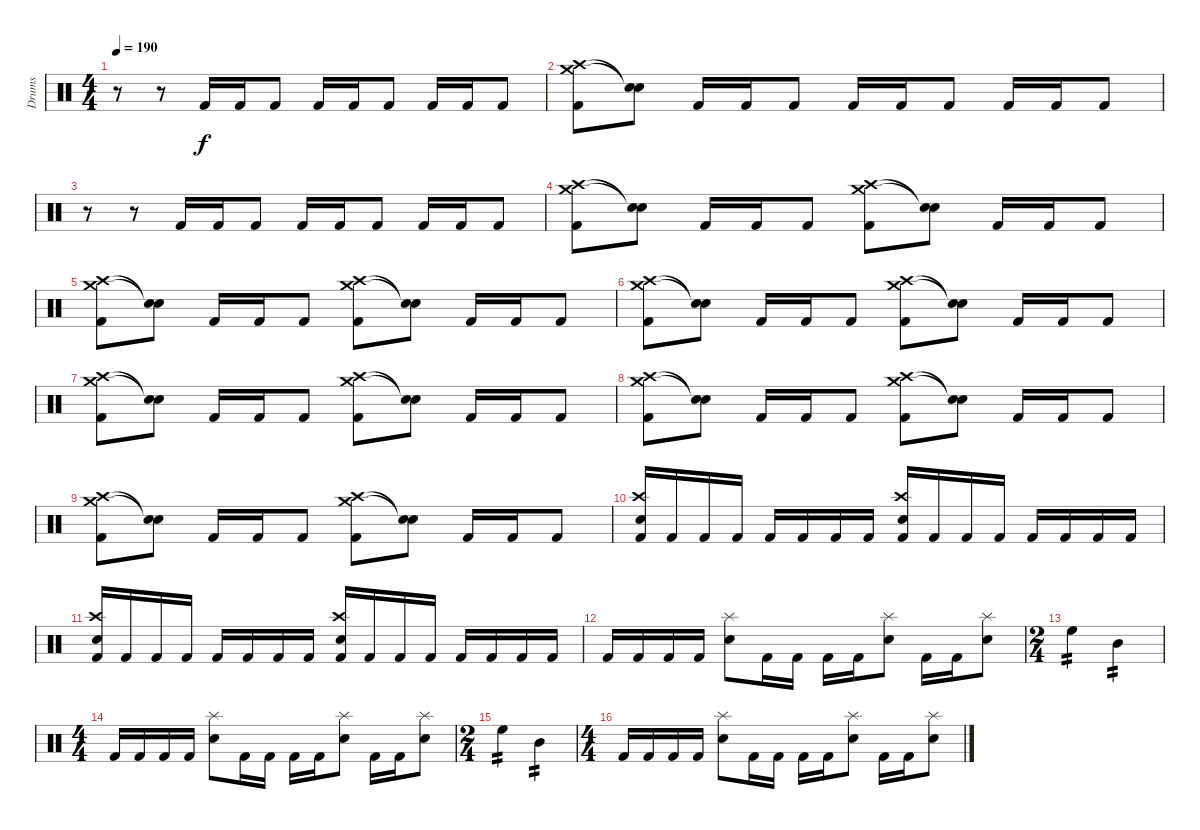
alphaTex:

\track ("Drums" "Drums") {instrument percussion}
\staff {score}
\articulation defaults
\ts (4 4)
\tempo 190
\clef neutral
\ks c
r.8{dy f} r.8 "Kick (hit) 2".16 "Kick (hit) 2".16 "Kick (hit) 2".8 "Kick (hit) 2".16 "Kick (hit) 2".16 "Kick (hit) 2".8 "Kick (hit) 2".16 "Kick (hit) 2".16 "Kick (hit) 2".8 |
("Crash medium (hit)" "Crash high (hit)" "Kick (hit) 2").8 ("Snare (hit)"{t} "Snare (hit)"{t}).8 "Kick (hit) 2".16 "Kick (hit) 2".16 "Kick (hit) 2".8 "Kick (hit) 2".16 "Kick (hit) 2".16 "Kick (hit) 2".8 "Kick (hit) 2".16 "Kick (hit) 2".16 "Kick (hit) 2".8 |
r.8 r.8 "Kick (hit) 2".16 "Kick (hit) 2".16 "Kick (hit) 2".8 "Kick (hit) 2".16 "Kick (hit) 2".16 "Kick (hit) 2".8 "Kick (hit) 2".16 "Kick (hit) 2".16 "Kick (hit) 2".8 |
("Crash medium (hit)" "Crash high (hit)" "Kick (hit) 2").8 ("Snare (hit)"{t} "Snare (hit)"{t}).8 "Kick (hit) 2".16 "Kick (hit) 2".16 "Kick (hit) 2".8 ("Crash medium (hit)" "Crash high (hit)" "Kick (hit) 2").8 ("Snare (hit)"{t} "Snare (hit)"{t}).8 "Kick (hit) 2".16 "Kick (hit) 2".16 "Kick (hit) 2".8 |
("Crash medium (hit)" "Crash high (hit)" "Kick (hit) 2").8 ("Snare (hit)"{t} "Snare (hit)"{t}).8 "Kick (hit) 2".16 "Kick (hit) 2".16 "Kick (hit) 2".8 ("Crash medium (hit)" "Crash high (hit)" "Kick (hit) 2").8 ("Snare (hit)"{t} "Snare (hit)"{t}).8 "Kick (hit) 2".16 "Kick (hit) 2".16 "Kick (hit) 2".8 |
("Crash medium (hit)" "Crash high (hit)" "Kick (hit) 2").8 ("Snare (hit)"{t} "Snare (hit)"{t}).8 "Kick (hit) 2".16 "Kick (hit) 2".16 "Kick (hit) 2".8 ("Crash medium (hit)" "Crash high (hit)" "Kick (hit) 2").8 ("Snare (hit)"{t} "Snare (hit)"{t}).8 "Kick (hit) 2".16 "Kick (hit) 2".16 "Kick (hit) 2".8 |
("Crash medium (hit)" "Crash high (hit)" "Kick (hit) 2").8 ("Snare (hit)"{t} "Snare (hit)"{t}).8 "Kick (hit) 2".16 "Kick (hit) 2".16 "Kick (hit) 2".8 ("Crash medium (hit)" "Crash high (hit)" "Kick (hit) 2").8 ("Snare (hit)"{t} "Snare (hit)"{t}).8 "Kick (hit) 2".16 "Kick (hit) 2".16 "Kick (hit) 2".8 |
("Crash medium (hit)" "Crash high (hit)" "Kick (hit) 2").8 ("Snare (hit)"{t} "Snare (hit)"{t}).8 "Kick (hit) 2".16 "Kick (hit) 2".16 "Kick (hit) 2".8 ("Crash medium (hit)" "Crash high (hit)" "Kick (hit) 2").8 ("Snare (hit)"{t} "Snare (hit)"{t}).8 "Kick (hit) 2".16 "Kick (hit) 2".16 "Kick (hit) 2".8 |
("Crash medium (hit)" "Crash high (hit)" "Kick (hit) 2").8 ("Snare (hit)"{t} "Snare (hit)"{t}).8 "Kick (hit) 2".16 "Kick (hit) 2".16 "Kick (hit) 2".8 ("Crash medium (hit)" "Crash high (hit)" "Kick (hit) 2").8 ("Snare (hit)"{t} "Snare (hit)"{t}).8 "Kick (hit) 2".16 "Kick (hit) 2".16 "Kick (hit) 2".8 |
("Crash high (hit)" "Snare (hit) 2" "Kick (hit) 2").16 "Kick (hit) 2".16 "Kick (hit) 2".16 "Kick (hit) 2".16 "Kick (hit) 2".16 "Kick (hit) 2".16 "Kick (hit) 2".16 "Kick (hit) 2".16 ("Crash high (hit)" "Snare (hit) 2" "Kick (hit) 2").16 "Kick (hit) 2".16 "Kick (hit) 2".16 "Kick (hit) 2".16 "Kick (hit) 2".16 "Kick (hit) 2".16 "Kick (hit) 2".16 "Kick (hit) 2".16 |
("Crash high (hit)" "Snare (hit) 2" "Kick (hit) 2").16 "Kick (hit) 2".16 "Kick (hit) 2".16 "Kick (hit) 2".16 "Kick (hit) 2".16 "Kick (hit) 2".16 "Kick (hit) 2".16 "Kick (hit) 2".16 ("Crash high (hit)" "Snare (hit) 2" "Kick (hit) 2").16 "Kick (hit) 2".16 "Kick (hit) 2".16 "Kick (hit) 2".16 "Kick (hit) 2".16 "Kick (hit) 2".16 "Kick (hit) 2".16 "Kick (hit) 2".16 |
"Kick (hit) 2".16 "Kick (hit) 2".16 "Kick (hit) 2".16 "Kick (hit) 2".16 ("Splash (hit)" "Snare (hit) 2").8 "Kick (hit) 2".16 "Kick (hit) 2".16 "Kick (hit) 2".16 "Kick (hit) 2".16 ("Splash (hit)" "Snare (hit) 2").8 "Kick (hit) 2".16 "Kick (hit) 2".16 ("Splash (hit)" "Snare (hit) 2").8 |
\ts (2 4)
"High Floor Tom (hit)".4{tp 2} "Mid Tom (hit)".4{tp 2} |
\ts (4 4)
"Kick (hit) 2".16 "Kick (hit) 2".16 "Kick (hit) 2".16 "Kick (hit) 2".16 ("Splash (hit)" "Snare (hit) 2").8 "Kick (hit) 2".16 "Kick (hit) 2".16 "Kick (hit) 2".16 "Kick (hit) 2".16 ("Splash (hit)" "Snare (hit) 2").8 "Kick (hit) 2".16 "Kick (hit) 2".16 ("Splash (hit)" "Snare (hit) 2").8 |
\ts (2 4)
"High Floor Tom (hit)".4{tp 2} "Mid Tom (hit)".4{tp 2} |
\ts (4 4)
"Kick (hit) 2".16 "Kick (hit) 2".16 "Kick (hit) 2".16 "Kick (hit) 2".16 ("Splash (hit)" "Snare (hit) 2").8 "Kick (hit) 2".16 "Kick (hit) 2".16 "Kick (hit) 2".16 "Kick (hit) 2".16 ("Splash (hit)" "Snare (hit) 2").8 "Kick (hit) 2".16 "Kick (hit) 2".16 ("Splash (hit)" "Snare (hit) 2").8
